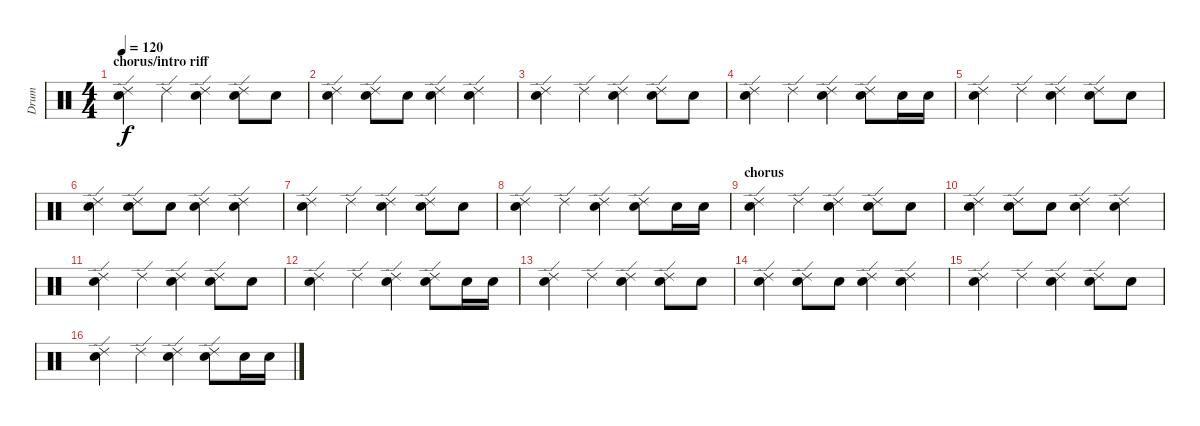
\track ("Drum" "Drum") {instrument percussion}
\staff {score}
\articulation defaults
\ts (4 4)
\section ("" "chorus/intro riff")
\tempo 120
\clef neutral
\ks c
("Electric Snare (hit)" "Ride (edge) 2").4{dy f} "Ride (edge) 2".4 ("Electric Snare (hit)" "Ride (edge) 2").4 ("Electric Snare (hit)" "Ride (edge) 2").8 "Electric Snare (hit)".8 |
("Electric Snare (hit)" "Ride (edge) 2").4 ("Electric Snare (hit)" "Ride (edge) 2").8 "Electric Snare (hit)".8 ("Electric Snare (hit)" "Ride (edge) 2").4 ("Electric Snare (hit)" "Ride (edge) 2").4 |
("Electric Snare (hit)" "Ride (edge) 2").4 "Ride (edge) 2".4 ("Electric Snare (hit)" "Ride (edge) 2").4 ("Electric Snare (hit)" "Ride (edge) 2").8 "Electric Snare (hit)".8 |
("Electric Snare (hit)" "Ride (edge) 2").4 "Ride (edge) 2".4 ("Electric Snare (hit)" "Ride (edge) 2").4 ("Electric Snare (hit)" "Ride (edge) 2").8 "Electric Snare (hit)".16 "Electric Snare (hit)".16 |
("Electric Snare (hit)" "Ride (edge) 2").4 "Ride (edge) 2".4 ("Electric Snare (hit)" "Ride (edge) 2").4 ("Electric Snare (hit)" "Ride (edge) 2").8 "Electric Snare (hit)".8 |
("Electric Snare (hit)" "Ride (edge) 2").4 ("Electric Snare (hit)" "Ride (edge) 2").8 "Electric Snare (hit)".8 ("Electric Snare (hit)" "Ride (edge) 2").4 ("Electric Snare (hit)" "Ride (edge) 2").4 |
("Electric Snare (hit)" "Ride (edge) 2").4 "Ride (edge) 2".4 ("Electric Snare (hit)" "Ride (edge) 2").4 ("Electric Snare (hit)" "Ride (edge) 2").8 "Electric Snare (hit)".8 |
("Electric Snare (hit)" "Ride (edge) 2").4 "Ride (edge) 2".4 ("Electric Snare (hit)" "Ride (edge) 2").4 ("Electric Snare (hit)" "Ride (edge) 2").8 "Electric Snare (hit)".16 "Electric Snare (hit)".16 |
\section ("" "chorus")
("Electric Snare (hit)" "Ride (edge) 2").4 "Ride (edge) 2".4 ("Electric Snare (hit)" "Ride (edge) 2").4 ("Electric Snare (hit)" "Ride (edge) 2").8 "Electric Snare (hit)".8 |
("Electric Snare (hit)" "Ride (edge) 2").4 ("Electric Snare (hit)" "Ride (edge) 2").8 "Electric Snare (hit)".8 ("Electric Snare (hit)" "Ride (edge) 2").4 ("Electric Snare (hit)" "Ride (edge) 2").4 |
("Electric Snare (hit)" "Ride (edge) 2").4 "Ride (edge) 2".4 ("Electric Snare (hit)" "Ride (edge) 2").4 ("Electric Snare (hit)" "Ride (edge) 2").8 "Electric Snare (hit)".8 |
("Electric Snare (hit)" "Ride (edge) 2").4 "Ride (edge) 2".4 ("Electric Snare (hit)" "Ride (edge) 2").4 ("Electric Snare (hit)" "Ride (edge) 2").8 "Electric Snare (hit)".16 "Electric Snare (hit)".16 |
("Electric Snare (hit)" "Ride (edge) 2").4 "Ride (edge) 2".4 ("Electric Snare (hit)" "Ride (edge) 2").4 ("Electric Snare (hit)" "Ride (edge) 2").8 "Electric Snare (hit)".8 |
("Electric Snare (hit)" "Ride (edge) 2").4 ("Electric Snare (hit)" "Ride (edge) 2").8 "Electric Snare (hit)".8 ("Electric Snare (hit)" "Ride (edge) 2").4 ("Electric Snare (hit)" "Ride (edge) 2").4 |
("Electric Snare (hit)" "Ride (edge) 2").4 "Ride (edge) 2".4 ("Electric Snare (hit)" "Ride (edge) 2").4 ("Electric Snare (hit)" "Ride (edge) 2").8 "Electric Snare (hit)".8 |
("Electric Snare (hit)" "Ride (edge) 2").4 "Ride (edge) 2".4 ("Electric Snare (hit)" "Ride (edge) 2").4 ("Electric Snare (hit)" "Ride (edge) 2").8 "Electric Snare (hit)".16 "Electric Snare (hit)".16
